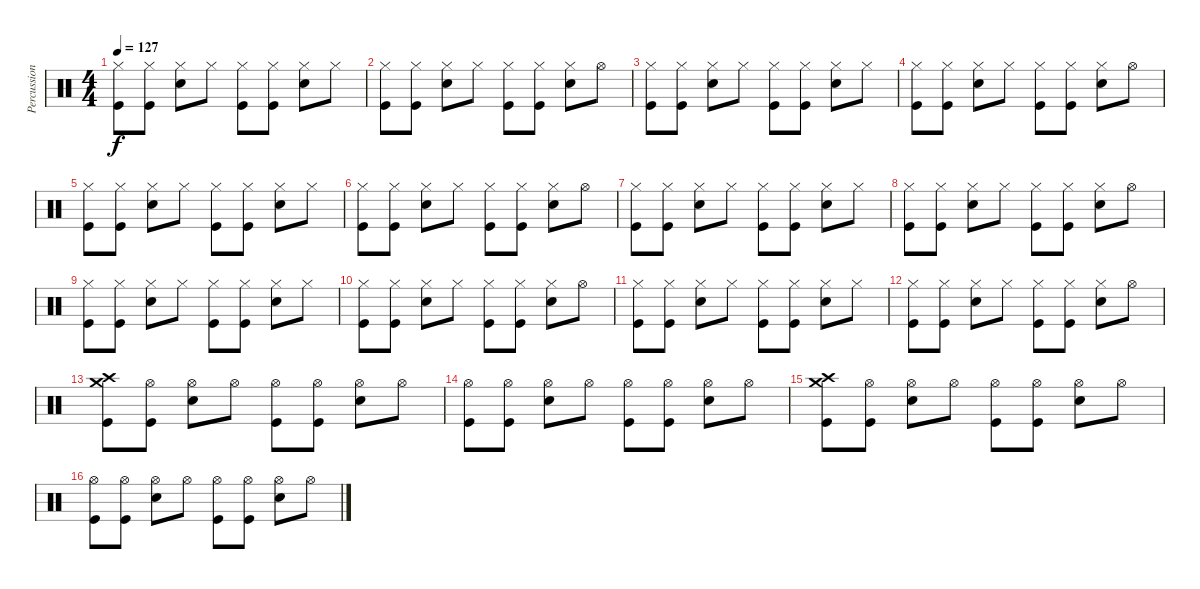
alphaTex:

\track ("Percussions" "Percussion") {instrument percussion}
\staff {score}
\articulation defaults
\ts (4 4)
\tempo 127
\clef neutral
\ks c
("Hi-Hat (closed)" "Kick (hit)").8{dy f} ("Hi-Hat (closed)" "Kick (hit)").8 ("Hi-Hat (closed)" "Snare (hit) 2").8 "Hi-Hat (closed)".8 ("Hi-Hat (closed)" "Kick (hit)").8 ("Hi-Hat (closed)" "Kick (hit)").8 ("Hi-Hat (closed)" "Snare (hit) 2").8 "Hi-Hat (closed)".8 |
("Hi-Hat (closed)" "Kick (hit)").8 ("Hi-Hat (closed)" "Kick (hit)").8 ("Hi-Hat (closed)" "Snare (hit) 2").8 "Hi-Hat (closed)".8 ("Hi-Hat (closed)" "Kick (hit)").8 ("Hi-Hat (closed)" "Kick (hit)").8 ("Hi-Hat (closed)" "Snare (hit) 2").8 "Hi-Hat (open)".8 |
("Hi-Hat (closed)" "Kick (hit)").8 ("Hi-Hat (closed)" "Kick (hit)").8 ("Hi-Hat (closed)" "Snare (hit) 2").8 "Hi-Hat (closed)".8 ("Hi-Hat (closed)" "Kick (hit)").8 ("Hi-Hat (closed)" "Kick (hit)").8 ("Hi-Hat (closed)" "Snare (hit) 2").8 "Hi-Hat (closed)".8 |
("Hi-Hat (closed)" "Kick (hit)").8 ("Hi-Hat (closed)" "Kick (hit)").8 ("Hi-Hat (closed)" "Snare (hit) 2").8 "Hi-Hat (closed)".8 ("Hi-Hat (closed)" "Kick (hit)").8 ("Hi-Hat (closed)" "Kick (hit)").8 ("Hi-Hat (closed)" "Snare (hit) 2").8 "Hi-Hat (open)".8 |
("Hi-Hat (closed)" "Kick (hit)").8 ("Hi-Hat (closed)" "Kick (hit)").8 ("Hi-Hat (closed)" "Snare (hit) 2").8 "Hi-Hat (closed)".8 ("Hi-Hat (closed)" "Kick (hit)").8 ("Hi-Hat (closed)" "Kick (hit)").8 ("Hi-Hat (closed)" "Snare (hit) 2").8 "Hi-Hat (closed)".8 |
("Hi-Hat (closed)" "Kick (hit)").8 ("Hi-Hat (closed)" "Kick (hit)").8 ("Hi-Hat (closed)" "Snare (hit) 2").8 "Hi-Hat (closed)".8 ("Hi-Hat (closed)" "Kick (hit)").8 ("Hi-Hat (closed)" "Kick (hit)").8 ("Hi-Hat (closed)" "Snare (hit) 2").8 "Hi-Hat (open)".8 |
("Hi-Hat (closed)" "Kick (hit)").8 ("Hi-Hat (closed)" "Kick (hit)").8 ("Hi-Hat (closed)" "Snare (hit) 2").8 "Hi-Hat (closed)".8 ("Hi-Hat (closed)" "Kick (hit)").8 ("Hi-Hat (closed)" "Kick (hit)").8 ("Hi-Hat (closed)" "Snare (hit) 2").8 "Hi-Hat (closed)".8 |
("Hi-Hat (closed)" "Kick (hit)").8 ("Hi-Hat (closed)" "Kick (hit)").8 ("Hi-Hat (closed)" "Snare (hit) 2").8 "Hi-Hat (closed)".8 ("Hi-Hat (closed)" "Kick (hit)").8 ("Hi-Hat (closed)" "Kick (hit)").8 ("Hi-Hat (closed)" "Snare (hit) 2").8 "Hi-Hat (open)".8 |
("Hi-Hat (closed)" "Kick (hit)").8 ("Hi-Hat (closed)" "Kick (hit)").8 ("Hi-Hat (closed)" "Snare (hit) 2").8 "Hi-Hat (closed)".8 ("Hi-Hat (closed)" "Kick (hit)").8 ("Hi-Hat (closed)" "Kick (hit)").8 ("Hi-Hat (closed)" "Snare (hit) 2").8 "Hi-Hat (closed)".8 |
("Hi-Hat (closed)" "Kick (hit)").8 ("Hi-Hat (closed)" "Kick (hit)").8 ("Hi-Hat (closed)" "Snare (hit) 2").8 "Hi-Hat (closed)".8 ("Hi-Hat (closed)" "Kick (hit)").8 ("Hi-Hat (closed)" "Kick (hit)").8 ("Hi-Hat (closed)" "Snare (hit) 2").8 "Hi-Hat (open)".8 |
("Hi-Hat (closed)" "Kick (hit)").8 ("Hi-Hat (closed)" "Kick (hit)").8 ("Hi-Hat (closed)" "Snare (hit) 2").8 "Hi-Hat (closed)".8 ("Hi-Hat (closed)" "Kick (hit)").8 ("Hi-Hat (closed)" "Kick (hit)").8 ("Hi-Hat (closed)" "Snare (hit) 2").8 "Hi-Hat (closed)".8 |
("Hi-Hat (closed)" "Kick (hit)").8 ("Hi-Hat (closed)" "Kick (hit)").8 ("Hi-Hat (closed)" "Snare (hit) 2").8 "Hi-Hat (closed)".8 ("Hi-Hat (closed)" "Kick (hit)").8 ("Hi-Hat (closed)" "Kick (hit)").8 ("Hi-Hat (closed)" "Snare (hit) 2").8 "Hi-Hat (open)".8 |
("Crash high (hit)" "Crash medium (hit)" "Kick (hit)").8 ("Hi-Hat (open)" "Kick (hit)").8 ("Hi-Hat (open)" "Snare (hit) 2").8 "Hi-Hat (open)".8 ("Hi-Hat (open)" "Kick (hit)").8 ("Hi-Hat (open)" "Kick (hit)").8 ("Hi-Hat (open)" "Snare (hit) 2").8 "Hi-Hat (open)".8 |
("Hi-Hat (open)" "Kick (hit)").8 ("Hi-Hat (open)" "Kick (hit)").8 ("Hi-Hat (open)" "Snare (hit) 2").8 "Hi-Hat (open)".8 ("Hi-Hat (open)" "Kick (hit)").8 ("Hi-Hat (open)" "Kick (hit)").8 ("Hi-Hat (open)" "Snare (hit) 2").8 "Hi-Hat (open)".8 |
("Crash high (hit)" "Crash medium (hit)" "Kick (hit)").8 ("Hi-Hat (open)" "Kick (hit)").8 ("Hi-Hat (open)" "Snare (hit) 2").8 "Hi-Hat (open)".8 ("Hi-Hat (open)" "Kick (hit)").8 ("Hi-Hat (open)" "Kick (hit)").8 ("Hi-Hat (open)" "Snare (hit) 2").8 "Hi-Hat (open)".8 |
("Hi-Hat (open)" "Kick (hit)").8 ("Hi-Hat (open)" "Kick (hit)").8 ("Hi-Hat (open)" "Snare (hit) 2").8 "Hi-Hat (open)".8 ("Hi-Hat (open)" "Kick (hit)").8 ("Hi-Hat (open)" "Kick (hit)").8 ("Hi-Hat (open)" "Snare (hit) 2").8 "Hi-Hat (open)".8
